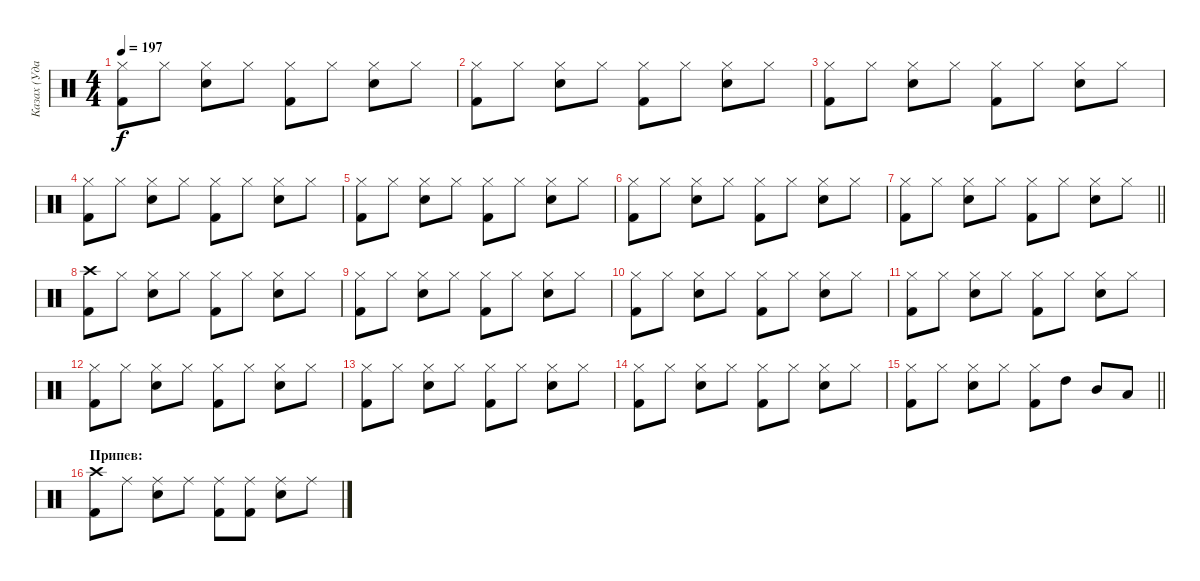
\track ("Казах (Ударные)" "Казах (Уда") {instrument percussion}
\staff {score}
\articulation defaults
\ts (4 4)
\tempo 197
\clef neutral
\ks c
("Hi-Hat (closed)" "Kick (hit) 2").8{dy f} "Hi-Hat (closed)".8 ("Hi-Hat (closed)" "Electric Snare (hit)").8 "Hi-Hat (closed)".8 ("Hi-Hat (closed)" "Kick (hit) 2").8 "Hi-Hat (closed)".8 ("Hi-Hat (closed)" "Electric Snare (hit)").8 "Hi-Hat (closed)".8 |
("Hi-Hat (closed)" "Kick (hit) 2").8 "Hi-Hat (closed)".8 ("Hi-Hat (closed)" "Electric Snare (hit)").8 "Hi-Hat (closed)".8 ("Hi-Hat (closed)" "Kick (hit) 2").8 "Hi-Hat (closed)".8 ("Hi-Hat (closed)" "Electric Snare (hit)").8 "Hi-Hat (closed)".8 |
("Hi-Hat (closed)" "Kick (hit) 2").8 "Hi-Hat (closed)".8 ("Hi-Hat (closed)" "Electric Snare (hit)").8 "Hi-Hat (closed)".8 ("Hi-Hat (closed)" "Kick (hit) 2").8 "Hi-Hat (closed)".8 ("Hi-Hat (closed)" "Electric Snare (hit)").8 "Hi-Hat (closed)".8 |
("Hi-Hat (closed)" "Kick (hit) 2").8 "Hi-Hat (closed)".8 ("Hi-Hat (closed)" "Electric Snare (hit)").8 "Hi-Hat (closed)".8 ("Hi-Hat (closed)" "Kick (hit) 2").8 "Hi-Hat (closed)".8 ("Hi-Hat (closed)" "Electric Snare (hit)").8 "Hi-Hat (closed)".8 |
("Hi-Hat (closed)" "Kick (hit) 2").8 "Hi-Hat (closed)".8 ("Hi-Hat (closed)" "Electric Snare (hit)").8 "Hi-Hat (closed)".8 ("Hi-Hat (closed)" "Kick (hit) 2").8 "Hi-Hat (closed)".8 ("Hi-Hat (closed)" "Electric Snare (hit)").8 "Hi-Hat (closed)".8 |
("Hi-Hat (closed)" "Kick (hit) 2").8 "Hi-Hat (closed)".8 ("Hi-Hat (closed)" "Electric Snare (hit)").8 "Hi-Hat (closed)".8 ("Hi-Hat (closed)" "Kick (hit) 2").8 "Hi-Hat (closed)".8 ("Hi-Hat (closed)" "Electric Snare (hit)").8 "Hi-Hat (closed)".8 |
\barLineRight lightlight
("Hi-Hat (closed)" "Kick (hit) 2").8 "Hi-Hat (closed)".8 ("Hi-Hat (closed)" "Electric Snare (hit)").8 "Hi-Hat (closed)".8 ("Hi-Hat (closed)" "Kick (hit) 2").8 "Hi-Hat (closed)".8 ("Hi-Hat (closed)" "Electric Snare (hit)").8 "Hi-Hat (closed)".8 |
("Crash high (hit)" "Kick (hit) 2").8 "Hi-Hat (closed)".8 ("Hi-Hat (closed)" "Electric Snare (hit)").8 "Hi-Hat (closed)".8 ("Hi-Hat (closed)" "Kick (hit) 2").8 "Hi-Hat (closed)".8 ("Hi-Hat (closed)" "Electric Snare (hit)").8 "Hi-Hat (closed)".8 |
("Hi-Hat (closed)" "Kick (hit) 2").8 "Hi-Hat (closed)".8 ("Hi-Hat (closed)" "Electric Snare (hit)").8 "Hi-Hat (closed)".8 ("Hi-Hat (closed)" "Kick (hit) 2").8 "Hi-Hat (closed)".8 ("Hi-Hat (closed)" "Electric Snare (hit)").8 "Hi-Hat (closed)".8 |
("Hi-Hat (closed)" "Kick (hit) 2").8 "Hi-Hat (closed)".8 ("Hi-Hat (closed)" "Electric Snare (hit)").8 "Hi-Hat (closed)".8 ("Hi-Hat (closed)" "Kick (hit) 2").8 "Hi-Hat (closed)".8 ("Hi-Hat (closed)" "Electric Snare (hit)").8 "Hi-Hat (closed)".8 |
("Hi-Hat (closed)" "Kick (hit) 2").8 "Hi-Hat (closed)".8 ("Hi-Hat (closed)" "Electric Snare (hit)").8 "Hi-Hat (closed)".8 ("Hi-Hat (closed)" "Kick (hit) 2").8 "Hi-Hat (closed)".8 ("Hi-Hat (closed)" "Electric Snare (hit)").8 "Hi-Hat (closed)".8 |
("Hi-Hat (closed)" "Kick (hit) 2").8 "Hi-Hat (closed)".8 ("Hi-Hat (closed)" "Electric Snare (hit)").8 "Hi-Hat (closed)".8 ("Hi-Hat (closed)" "Kick (hit) 2").8 "Hi-Hat (closed)".8 ("Hi-Hat (closed)" "Electric Snare (hit)").8 "Hi-Hat (closed)".8 |
("Hi-Hat (closed)" "Kick (hit) 2").8 "Hi-Hat (closed)".8 ("Hi-Hat (closed)" "Electric Snare (hit)").8 "Hi-Hat (closed)".8 ("Hi-Hat (closed)" "Kick (hit) 2").8 "Hi-Hat (closed)".8 ("Hi-Hat (closed)" "Electric Snare (hit)").8 "Hi-Hat (closed)".8 |
("Hi-Hat (closed)" "Kick (hit) 2").8 "Hi-Hat (closed)".8 ("Hi-Hat (closed)" "Electric Snare (hit)").8 "Hi-Hat (closed)".8 ("Hi-Hat (closed)" "Kick (hit) 2").8 "Hi-Hat (closed)".8 ("Hi-Hat (closed)" "Electric Snare (hit)").8 "Hi-Hat (closed)".8 |
\barLineRight lightlight
("Hi-Hat (closed)" "Kick (hit) 2").8 "Hi-Hat (closed)".8 ("Hi-Hat (closed)" "Electric Snare (hit)").8 "Hi-Hat (closed)".8 ("Hi-Hat (closed)" "Kick (hit) 2").8 "High Tom (hit)".8 "Mid Tom (hit)".8 "Low Tom (hit)".8 |
\section ("" "Припев:")
("Crash high (hit)" "Kick (hit) 2").8 "Ride (middle)".8 ("Ride (middle)" "Electric Snare (hit)").8 "Ride (middle)".8 ("Ride (middle)" "Kick (hit) 2").8 ("Ride (middle)" "Kick (hit) 2").8 ("Ride (middle)" "Electric Snare (hit)").8 "Ride (middle)".8
